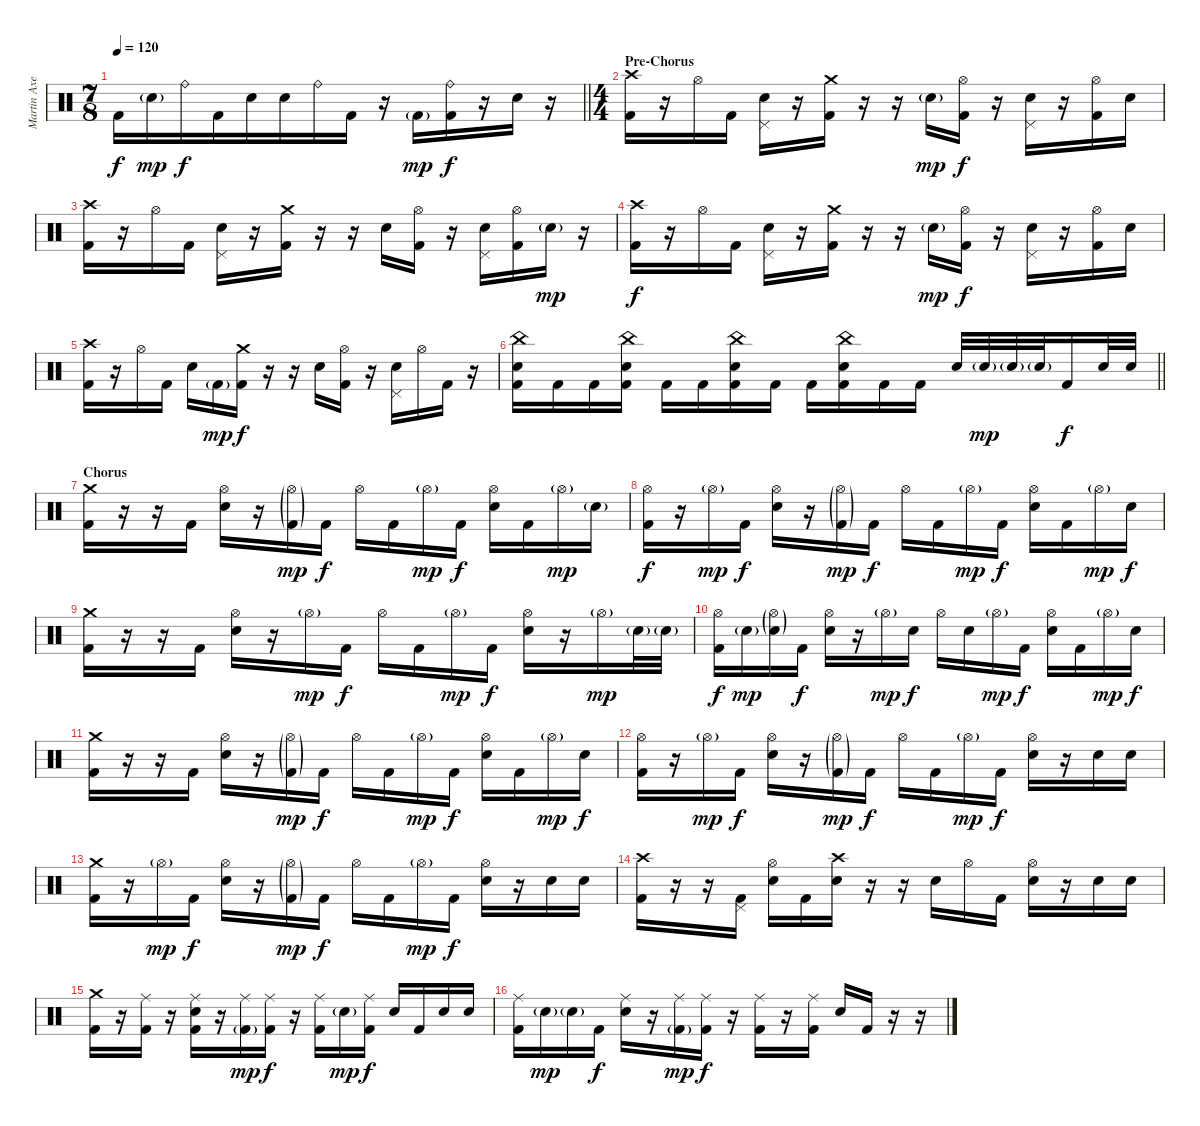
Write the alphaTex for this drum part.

\track ("Martin Axenrot - Drums" "Martin Axe") {instrument percussion}
\staff {score}
\articulation defaults
\ts (7 8)
\tempo 120
\clef neutral
\barLineRight lightlight
\ks c "Kick (hit) 2".16{dy f} "Snare (hit) 2"{g}.16{dy mp} "Ride (bell)".16{dy f} "Kick (hit) 2".16 "Snare (hit) 2".16 "Snare (hit) 2".16 "Ride (bell)".16 "Kick (hit) 2".16
r.16 "Kick (hit) 2"{g}.16{dy mp} ("Ride (bell)" "Kick (hit) 2").16{dy f} r.16 "Snare (hit) 2".16 r.16 |
\ts (4 4)
\section ("" "Pre-Chorus")
("Crash high (hit)" "Kick (hit) 2").16 r.16 "Hi-Hat (open)".16 "Kick (hit) 2".16 ("Snare (hit) 2" "Pedal Hi-Hat (hit)").16 r.16 ("Crash medium (hit)" "Kick (hit) 2").16 r.16 r.16 "Snare (hit) 2"{g}.16{dy mp} ("Hi-Hat (open)" "Kick (hit) 2").16{dy f} r.16 ("Snare (hit) 2" "Pedal Hi-Hat (hit)").16 r.16 ("Hi-Hat (open)" "Kick (hit) 2").16 "Snare (hit) 2".16 |
("Crash high (hit)" "Kick (hit) 2").16 r.16 "Hi-Hat (open)".16 "Kick (hit) 2".16 ("Snare (hit) 2" "Pedal Hi-Hat (hit)").16 r.16 ("Crash medium (hit)" "Kick (hit) 2").16 r.16 r.16 "Snare (hit) 2".16 ("Hi-Hat (open)" "Kick (hit) 2").16 r.16 ("Snare (hit) 2" "Pedal Hi-Hat (hit)").16 ("Hi-Hat (open)" "Kick (hit) 2").16 "Snare (hit) 2"{g}.16{dy mp} r.16 |
("Crash high (hit)" "Kick (hit) 2").16{dy f} r.16 "Hi-Hat (open)".16 "Kick (hit) 2".16 ("Snare (hit) 2" "Pedal Hi-Hat (hit)").16 r.16 ("Crash medium (hit)" "Kick (hit) 2").16 r.16 r.16 "Snare (hit) 2"{g}.16{dy mp} ("Hi-Hat (open)" "Kick (hit) 2").16{dy f} r.16 ("Snare (hit) 2" "Pedal Hi-Hat (hit)").16 r.16 ("Hi-Hat (open)" "Kick (hit) 2").16 "Snare (hit) 2".16 |
("Crash high (hit)" "Kick (hit) 2").16 r.16 "Hi-Hat (open)".16 "Kick (hit) 2".16 "Snare (hit) 2".16 "Kick (hit) 2"{g}.16{dy mp} ("Crash medium (hit)" "Kick (hit) 2").16{dy f} r.16 r.16 "Snare (hit) 2".16 ("Hi-Hat (open)" "Kick (hit) 2").16 r.16 ("Snare (hit) 2" "Pedal Hi-Hat (hit)").16 "Hi-Hat (open)".16 "Kick (hit) 2".16 r.16 |
\barLineRight lightlight
("China (hit)" "Snare (hit) 2" "Kick (hit) 2").16 "Kick (hit) 2".16 "Kick (hit) 2".16 ("China (hit)" "Snare (hit) 2" "Kick (hit) 2").16 "Kick (hit) 2".16 "Kick (hit) 2".16 ("China (hit)" "Snare (hit) 2" "Kick (hit) 2").16 "Kick (hit) 2".16 "Kick (hit) 2".16 ("China (hit)" "Snare (hit) 2" "Kick (hit) 2").16 "Kick (hit) 2".16 "Kick (hit) 2".16 "Snare (hit) 2".32 "Snare (hit) 2"{g}.32{dy mp} "Snare (hit) 2"{g}.32 "Snare (hit) 2"{g}.32 "Kick (hit) 2".16{dy f} "Snare (hit) 2".32 "Snare (hit) 2".32 |
\section ("" "Chorus")
("Crash medium (hit)" "Kick (hit) 2").16 r.16 r.16 "Kick (hit) 2".16 ("Hi-Hat (open)" "Snare (hit) 2").16 r.16 ("Hi-Hat (open)"{g} "Kick (hit) 2"{g}).16{dy mp} "Kick (hit) 2".16{dy f} "Hi-Hat (open)".16 "Kick (hit) 2".16 "Hi-Hat (open)"{g}.16{dy mp} "Kick (hit) 2".16{dy f} ("Hi-Hat (open)" "Snare (hit) 2").16 "Kick (hit) 2".16 "Hi-Hat (open)"{g}.16{dy mp} "Snare (hit) 2"{g}.16 |
("Hi-Hat (open)" "Kick (hit) 2").16{dy f} r.16 "Hi-Hat (open)"{g}.16{dy mp} "Kick (hit) 2".16{dy f} ("Hi-Hat (open)" "Snare (hit) 2").16 r.16 ("Hi-Hat (open)"{g} "Kick (hit) 2"{g}).16{dy mp} "Kick (hit) 2".16{dy f} "Hi-Hat (open)".16 "Kick (hit) 2".16 "Hi-Hat (open)"{g}.16{dy mp} "Kick (hit) 2".16{dy f} ("Hi-Hat (open)" "Snare (hit) 2").16 "Kick (hit) 2".16 "Hi-Hat (open)"{g}.16{dy mp} "Snare (hit) 2".16{dy f} |
("Crash medium (hit)" "Kick (hit) 2").16 r.16 r.16 "Kick (hit) 2".16 ("Hi-Hat (open)" "Snare (hit) 2").16 r.16 "Hi-Hat (open)"{g}.16{dy mp} "Kick (hit) 2".16{dy f} "Hi-Hat (open)".16 "Kick (hit) 2".16 "Hi-Hat (open)"{g}.16{dy mp} "Kick (hit) 2".16{dy f} ("Hi-Hat (open)" "Snare (hit) 2").16 r.16 "Hi-Hat (open)"{g}.16{dy mp} "Snare (hit) 2"{g}.32 "Snare (hit) 2"{g}.32 |
("Hi-Hat (open)" "Kick (hit) 2").16{dy f} "Snare (hit) 2"{g}.16{dy mp} ("Hi-Hat (open)"{g} "Snare (hit) 2"{g}).16 "Kick (hit) 2".16{dy f} ("Hi-Hat (open)" "Snare (hit) 2").16 r.16 "Hi-Hat (open)"{g}.16{dy mp} "Snare (hit) 2".16{dy f} "Hi-Hat (open)".16 "Snare (hit) 2".16 "Hi-Hat (open)"{g}.16{dy mp} "Kick (hit) 2".16{dy f} ("Hi-Hat (open)" "Snare (hit) 2").16 "Kick (hit) 2".16 "Hi-Hat (open)"{g}.16{dy mp} "Snare (hit) 2".16{dy f} |
("Crash medium (hit)" "Kick (hit) 2").16 r.16 r.16 "Kick (hit) 2".16 ("Hi-Hat (open)" "Snare (hit) 2").16 r.16 ("Hi-Hat (open)"{g} "Kick (hit) 2"{g}).16{dy mp} "Kick (hit) 2".16{dy f} "Hi-Hat (open)".16 "Kick (hit) 2".16 "Hi-Hat (open)"{g}.16{dy mp} "Kick (hit) 2".16{dy f} ("Hi-Hat (open)" "Snare (hit) 2").16 "Kick (hit) 2".16 "Hi-Hat (open)"{g}.16{dy mp} "Snare (hit) 2".16{dy f} |
("Hi-Hat (open)" "Kick (hit) 2").16 r.16 "Hi-Hat (open)"{g}.16{dy mp} "Kick (hit) 2".16{dy f} ("Hi-Hat (open)" "Snare (hit) 2").16 r.16 ("Hi-Hat (open)"{g} "Kick (hit) 2"{g}).16{dy mp} "Kick (hit) 2".16{dy f} "Hi-Hat (open)".16 "Kick (hit) 2".16 "Hi-Hat (open)"{g}.16{dy mp} "Kick (hit) 2".16{dy f} ("Hi-Hat (open)" "Snare (hit) 2").16 r.16 "Snare (hit) 2".16 "Snare (hit) 2".16 |
("Crash medium (hit)" "Kick (hit) 2").16 r.16 "Hi-Hat (open)"{g}.16{dy mp} "Kick (hit) 2".16{dy f} ("Hi-Hat (open)" "Snare (hit) 2").16 r.16 ("Hi-Hat (open)"{g} "Kick (hit) 2"{g}).16{dy mp} "Kick (hit) 2".16{dy f} "Hi-Hat (open)".16 "Kick (hit) 2".16 "Hi-Hat (open)"{g}.16{dy mp} "Kick (hit) 2".16{dy f} ("Hi-Hat (open)" "Snare (hit) 2").16 r.16 "Snare (hit) 2".16 "Snare (hit) 2".16 |
("Crash high (hit)" "Kick (hit) 2").16 r.16 r.16 ("Pedal Hi-Hat (hit)" "Kick (hit) 2").16 ("Hi-Hat (open)" "Snare (hit) 2").16 "Kick (hit) 2".16 ("Crash high (hit)" "Snare (hit) 2").16 r.16 r.16 "Snare (hit) 2".16 "Hi-Hat (open)".16 "Kick (hit) 2".16 ("Hi-Hat (open)" "Snare (hit) 2").16 r.16 "Snare (hit) 2".16 "Snare (hit) 2".16 |
("Crash medium (hit)" "Kick (hit) 2").16 r.16 ("Ride (middle)" "Kick (hit) 2").16 r.16 ("Ride (middle)" "Snare (hit) 2" "Kick (hit) 2").16 r.16 ("Ride (middle)" "Kick (hit) 2"{g}).16{dy mp} ("Ride (middle)" "Kick (hit) 2").16{dy f} r.16 ("Ride (middle)" "Kick (hit) 2").16 "Snare (hit) 2"{g}.16{dy mp} ("Ride (middle)" "Kick (hit) 2").16{dy f} "Snare (hit) 2".16 "Kick (hit) 2".16 "Snare (hit) 2".16 "Snare (hit) 2".16 |
("Ride (middle)" "Kick (hit) 2").16 "Snare (hit) 2"{g}.16{dy mp} "Snare (hit) 2"{g}.16 "Kick (hit) 2".16{dy f} ("Ride (middle)" "Snare (hit) 2").16 r.16 ("Ride (middle)" "Kick (hit) 2"{g}).16{dy mp} ("Ride (middle)" "Kick (hit) 2").16{dy f} r.16 ("Ride (middle)" "Kick (hit) 2").16 r.16 ("Ride (middle)" "Kick (hit) 2").16 "Snare (hit) 2".16 "Kick (hit) 2".16 r.16 r.16
